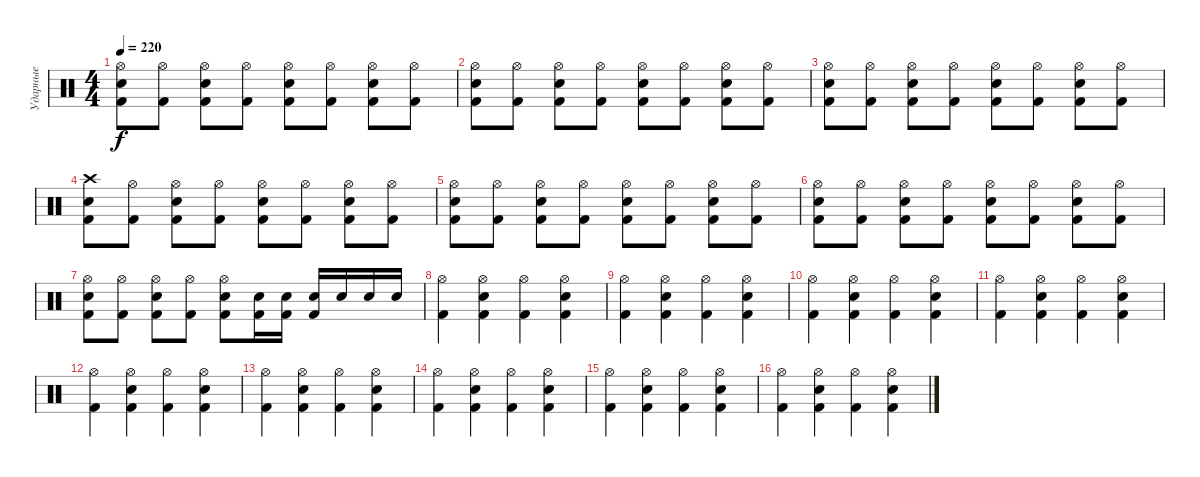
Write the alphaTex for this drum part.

\track ("Ударные" "Ударные") {instrument percussion}
\staff
\articulation defaults
\ts (4 4)
\tempo 220
\clef neutral
\ks c
("Kick (hit) 2" "Snare (hit) 2" "Hi-Hat (open)").8{dy f} ("Kick (hit) 2" "Hi-Hat (open)").8 ("Kick (hit) 2" "Snare (hit) 2" "Hi-Hat (open)").8 ("Kick (hit) 2" "Hi-Hat (open)").8 ("Kick (hit) 2" "Snare (hit) 2" "Hi-Hat (open)").8 ("Kick (hit) 2" "Hi-Hat (open)").8 ("Kick (hit) 2" "Snare (hit) 2" "Hi-Hat (open)").8 ("Kick (hit) 2" "Hi-Hat (open)").8 |
("Kick (hit) 2" "Snare (hit) 2" "Hi-Hat (open)").8 ("Kick (hit) 2" "Hi-Hat (open)").8 ("Kick (hit) 2" "Snare (hit) 2" "Hi-Hat (open)").8 ("Kick (hit) 2" "Hi-Hat (open)").8 ("Kick (hit) 2" "Snare (hit) 2" "Hi-Hat (open)").8 ("Kick (hit) 2" "Hi-Hat (open)").8 ("Kick (hit) 2" "Snare (hit) 2" "Hi-Hat (open)").8 ("Kick (hit) 2" "Hi-Hat (open)").8 |
("Kick (hit) 2" "Snare (hit) 2" "Hi-Hat (open)").8 ("Kick (hit) 2" "Hi-Hat (open)").8 ("Kick (hit) 2" "Snare (hit) 2" "Hi-Hat (open)").8 ("Kick (hit) 2" "Hi-Hat (open)").8 ("Kick (hit) 2" "Snare (hit) 2" "Hi-Hat (open)").8 ("Kick (hit) 2" "Hi-Hat (open)").8 ("Kick (hit) 2" "Snare (hit) 2" "Hi-Hat (open)").8 ("Kick (hit) 2" "Hi-Hat (open)").8 |
("Kick (hit) 2" "Snare (hit) 2" "Crash high (hit)").8 ("Kick (hit) 2" "Hi-Hat (open)").8 ("Kick (hit) 2" "Snare (hit) 2" "Hi-Hat (open)").8 ("Kick (hit) 2" "Hi-Hat (open)").8 ("Kick (hit) 2" "Snare (hit) 2" "Hi-Hat (open)").8 ("Kick (hit) 2" "Hi-Hat (open)").8 ("Kick (hit) 2" "Snare (hit) 2" "Hi-Hat (open)").8 ("Kick (hit) 2" "Hi-Hat (open)").8 |
("Kick (hit) 2" "Snare (hit) 2" "Hi-Hat (open)").8 ("Kick (hit) 2" "Hi-Hat (open)").8 ("Kick (hit) 2" "Snare (hit) 2" "Hi-Hat (open)").8 ("Kick (hit) 2" "Hi-Hat (open)").8 ("Kick (hit) 2" "Snare (hit) 2" "Hi-Hat (open)").8 ("Kick (hit) 2" "Hi-Hat (open)").8 ("Kick (hit) 2" "Snare (hit) 2" "Hi-Hat (open)").8 ("Kick (hit) 2" "Hi-Hat (open)").8 |
("Kick (hit) 2" "Snare (hit) 2" "Hi-Hat (open)").8 ("Kick (hit) 2" "Hi-Hat (open)").8 ("Kick (hit) 2" "Snare (hit) 2" "Hi-Hat (open)").8 ("Kick (hit) 2" "Hi-Hat (open)").8 ("Kick (hit) 2" "Snare (hit) 2" "Hi-Hat (open)").8 ("Kick (hit) 2" "Hi-Hat (open)").8 ("Kick (hit) 2" "Snare (hit) 2" "Hi-Hat (open)").8 ("Kick (hit) 2" "Hi-Hat (open)").8 |
("Kick (hit) 2" "Snare (hit) 2" "Hi-Hat (open)").8 ("Kick (hit) 2" "Hi-Hat (open)").8 ("Kick (hit) 2" "Snare (hit) 2" "Hi-Hat (open)").8 ("Kick (hit) 2" "Hi-Hat (open)").8 ("Kick (hit) 2" "Snare (hit) 2" "Hi-Hat (open)").8 ("Kick (hit) 2" "Snare (hit) 2").16 ("Kick (hit) 2" "Snare (hit) 2").16 ("Kick (hit) 2" "Snare (hit) 2").16 "Snare (hit) 2".16 "Snare (hit) 2".16 "Snare (hit) 2".16 |
("Kick (hit) 2" "Hi-Hat (open)").4 ("Kick (hit) 2" "Snare (hit) 2" "Hi-Hat (open)").4 ("Kick (hit) 2" "Hi-Hat (open)").4 ("Kick (hit) 2" "Snare (hit) 2" "Hi-Hat (open)").4 |
("Kick (hit) 2" "Hi-Hat (open)").4 ("Kick (hit) 2" "Snare (hit) 2" "Hi-Hat (open)").4 ("Kick (hit) 2" "Hi-Hat (open)").4 ("Kick (hit) 2" "Snare (hit) 2" "Hi-Hat (open)").4 |
("Kick (hit) 2" "Hi-Hat (open)").4 ("Kick (hit) 2" "Snare (hit) 2" "Hi-Hat (open)").4 ("Kick (hit) 2" "Hi-Hat (open)").4 ("Kick (hit) 2" "Snare (hit) 2" "Hi-Hat (open)").4 |
("Kick (hit) 2" "Hi-Hat (open)").4 ("Kick (hit) 2" "Snare (hit) 2" "Hi-Hat (open)").4 ("Kick (hit) 2" "Hi-Hat (open)").4 ("Kick (hit) 2" "Snare (hit) 2" "Hi-Hat (open)").4 |
("Kick (hit) 2" "Hi-Hat (open)").4 ("Kick (hit) 2" "Snare (hit) 2" "Hi-Hat (open)").4 ("Kick (hit) 2" "Hi-Hat (open)").4 ("Kick (hit) 2" "Snare (hit) 2" "Hi-Hat (open)").4 |
("Kick (hit) 2" "Hi-Hat (open)").4 ("Kick (hit) 2" "Snare (hit) 2" "Hi-Hat (open)").4 ("Kick (hit) 2" "Hi-Hat (open)").4 ("Kick (hit) 2" "Snare (hit) 2" "Hi-Hat (open)").4 |
("Kick (hit) 2" "Hi-Hat (open)").4 ("Kick (hit) 2" "Snare (hit) 2" "Hi-Hat (open)").4 ("Kick (hit) 2" "Hi-Hat (open)").4 ("Kick (hit) 2" "Snare (hit) 2" "Hi-Hat (open)").4 |
("Kick (hit) 2" "Hi-Hat (open)").4 ("Kick (hit) 2" "Snare (hit) 2" "Hi-Hat (open)").4 ("Kick (hit) 2" "Hi-Hat (open)").4 ("Kick (hit) 2" "Snare (hit) 2" "Hi-Hat (open)").4 |
("Kick (hit) 2" "Hi-Hat (open)").4 ("Kick (hit) 2" "Snare (hit) 2" "Hi-Hat (open)").4 ("Kick (hit) 2" "Hi-Hat (open)").4 ("Kick (hit) 2" "Snare (hit) 2" "Hi-Hat (open)").4
